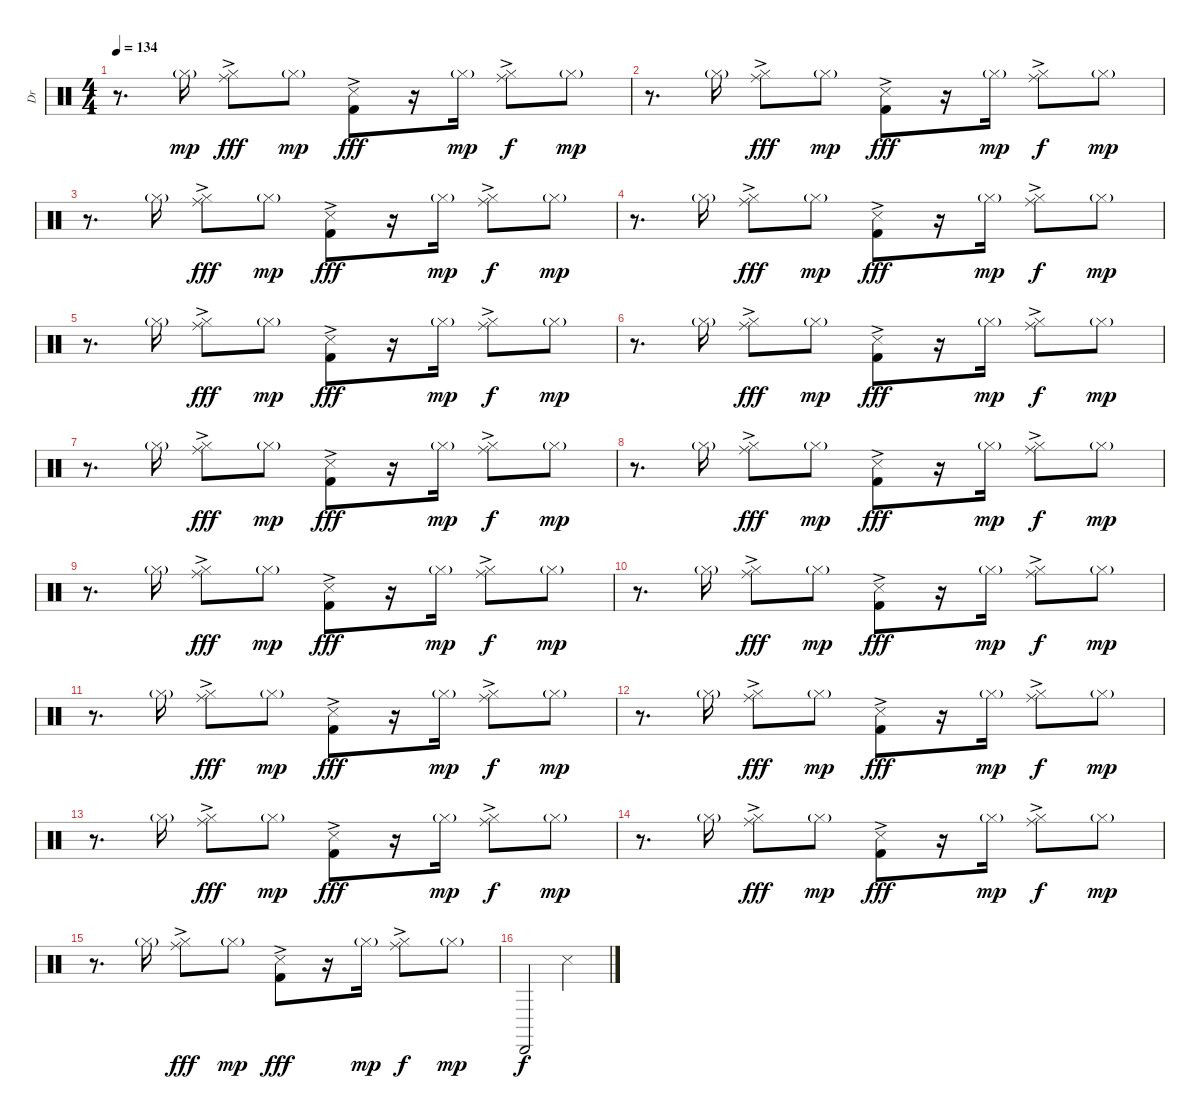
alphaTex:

\track ("Dr" "Dr") {instrument percussion}
\staff {score}
\articulation defaults
\ts (4 4)
\tempo 134
\clef neutral
\ks c
r.8{d dy mp} "Hi-Hat (closed)"{g}.16 ("Ride (middle)" "Hi-Hat (closed)"{ac}).8{dy fff} "Hi-Hat (closed)"{g}.8{dy mp} ("Snare (side stick) 3"{ac} "Kick (hit) 2").8{dy fff} r.16 "Hi-Hat (closed)"{g}.16{dy mp} ("Ride (middle)" "Hi-Hat (closed)"{ac}).8{dy f} "Hi-Hat (closed)"{g}.8{dy mp} |
r.8{d} "Hi-Hat (closed)"{g}.16 ("Ride (middle)" "Hi-Hat (closed)"{ac}).8{dy fff} "Hi-Hat (closed)"{g}.8{dy mp} ("Snare (side stick) 3"{ac} "Kick (hit) 2").8{dy fff} r.16 "Hi-Hat (closed)"{g}.16{dy mp} ("Ride (middle)" "Hi-Hat (closed)"{ac}).8{dy f} "Hi-Hat (closed)"{g}.8{dy mp} |
r.8{d} "Hi-Hat (closed)"{g}.16 ("Ride (middle)" "Hi-Hat (closed)"{ac}).8{dy fff} "Hi-Hat (closed)"{g}.8{dy mp} ("Snare (side stick) 3"{ac} "Kick (hit) 2").8{dy fff} r.16 "Hi-Hat (closed)"{g}.16{dy mp} ("Ride (middle)" "Hi-Hat (closed)"{ac}).8{dy f} "Hi-Hat (closed)"{g}.8{dy mp} |
r.8{d} "Hi-Hat (closed)"{g}.16 ("Ride (middle)" "Hi-Hat (closed)"{ac}).8{dy fff} "Hi-Hat (closed)"{g}.8{dy mp} ("Snare (side stick) 3"{ac} "Kick (hit) 2").8{dy fff} r.16 "Hi-Hat (closed)"{g}.16{dy mp} ("Ride (middle)" "Hi-Hat (closed)"{ac}).8{dy f} "Hi-Hat (closed)"{g}.8{dy mp} |
r.8{d} "Hi-Hat (closed)"{g}.16 ("Ride (middle)" "Hi-Hat (closed)"{ac}).8{dy fff} "Hi-Hat (closed)"{g}.8{dy mp} ("Snare (side stick) 3"{ac} "Kick (hit) 2").8{dy fff} r.16 "Hi-Hat (closed)"{g}.16{dy mp} ("Ride (middle)" "Hi-Hat (closed)"{ac}).8{dy f} "Hi-Hat (closed)"{g}.8{dy mp} |
r.8{d} "Hi-Hat (closed)"{g}.16 ("Ride (middle)" "Hi-Hat (closed)"{ac}).8{dy fff} "Hi-Hat (closed)"{g}.8{dy mp} ("Snare (side stick) 3"{ac} "Kick (hit) 2").8{dy fff} r.16 "Hi-Hat (closed)"{g}.16{dy mp} ("Ride (middle)" "Hi-Hat (closed)"{ac}).8{dy f} "Hi-Hat (closed)"{g}.8{dy mp} |
r.8{d} "Hi-Hat (closed)"{g}.16 ("Ride (middle)" "Hi-Hat (closed)"{ac}).8{dy fff} "Hi-Hat (closed)"{g}.8{dy mp} ("Snare (side stick) 3"{ac} "Kick (hit) 2").8{dy fff} r.16 "Hi-Hat (closed)"{g}.16{dy mp} ("Ride (middle)" "Hi-Hat (closed)"{ac}).8{dy f} "Hi-Hat (closed)"{g}.8{dy mp} |
r.8{d} "Hi-Hat (closed)"{g}.16 ("Ride (middle)" "Hi-Hat (closed)"{ac}).8{dy fff} "Hi-Hat (closed)"{g}.8{dy mp} ("Snare (side stick) 3"{ac} "Kick (hit) 2").8{dy fff} r.16 "Hi-Hat (closed)"{g}.16{dy mp} ("Ride (middle)" "Hi-Hat (closed)"{ac}).8{dy f} "Hi-Hat (closed)"{g}.8{dy mp} |
r.8{d} "Hi-Hat (closed)"{g}.16 ("Ride (middle)" "Hi-Hat (closed)"{ac}).8{dy fff} "Hi-Hat (closed)"{g}.8{dy mp} ("Snare (side stick) 3"{ac} "Kick (hit) 2").8{dy fff} r.16 "Hi-Hat (closed)"{g}.16{dy mp} ("Ride (middle)" "Hi-Hat (closed)"{ac}).8{dy f} "Hi-Hat (closed)"{g}.8{dy mp} |
r.8{d} "Hi-Hat (closed)"{g}.16 ("Ride (middle)" "Hi-Hat (closed)"{ac}).8{dy fff} "Hi-Hat (closed)"{g}.8{dy mp} ("Snare (side stick) 3"{ac} "Kick (hit) 2").8{dy fff} r.16 "Hi-Hat (closed)"{g}.16{dy mp} ("Ride (middle)" "Hi-Hat (closed)"{ac}).8{dy f} "Hi-Hat (closed)"{g}.8{dy mp} |
r.8{d} "Hi-Hat (closed)"{g}.16 ("Ride (middle)" "Hi-Hat (closed)"{ac}).8{dy fff} "Hi-Hat (closed)"{g}.8{dy mp} ("Snare (side stick) 3"{ac} "Kick (hit) 2").8{dy fff} r.16 "Hi-Hat (closed)"{g}.16{dy mp} ("Ride (middle)" "Hi-Hat (closed)"{ac}).8{dy f} "Hi-Hat (closed)"{g}.8{dy mp} |
r.8{d} "Hi-Hat (closed)"{g}.16 ("Ride (middle)" "Hi-Hat (closed)"{ac}).8{dy fff} "Hi-Hat (closed)"{g}.8{dy mp} ("Snare (side stick) 3"{ac} "Kick (hit) 2").8{dy fff} r.16 "Hi-Hat (closed)"{g}.16{dy mp} ("Ride (middle)" "Hi-Hat (closed)"{ac}).8{dy f} "Hi-Hat (closed)"{g}.8{dy mp} |
r.8{d} "Hi-Hat (closed)"{g}.16 ("Ride (middle)" "Hi-Hat (closed)"{ac}).8{dy fff} "Hi-Hat (closed)"{g}.8{dy mp} ("Snare (side stick) 3"{ac} "Kick (hit) 2").8{dy fff} r.16 "Hi-Hat (closed)"{g}.16{dy mp} ("Ride (middle)" "Hi-Hat (closed)"{ac}).8{dy f} "Hi-Hat (closed)"{g}.8{dy mp} |
r.8{d} "Hi-Hat (closed)"{g}.16 ("Ride (middle)" "Hi-Hat (closed)"{ac}).8{dy fff} "Hi-Hat (closed)"{g}.8{dy mp} ("Snare (side stick) 3"{ac} "Kick (hit) 2").8{dy fff} r.16 "Hi-Hat (closed)"{g}.16{dy mp} ("Ride (middle)" "Hi-Hat (closed)"{ac}).8{dy f} "Hi-Hat (closed)"{g}.8{dy mp} |
r.8{d} "Hi-Hat (closed)"{g}.16 ("Ride (middle)" "Hi-Hat (closed)"{ac}).8{dy fff} "Hi-Hat (closed)"{g}.8{dy mp} ("Snare (side stick) 3"{ac} "Kick (hit) 2").8{dy fff} r.16 "Hi-Hat (closed)"{g}.16{dy mp} ("Ride (middle)" "Hi-Hat (closed)"{ac}).8{dy f} "Hi-Hat (closed)"{g}.8{dy mp} |
"Cabasa (hit)".2{dy f} "Snare (side stick) 3".2
